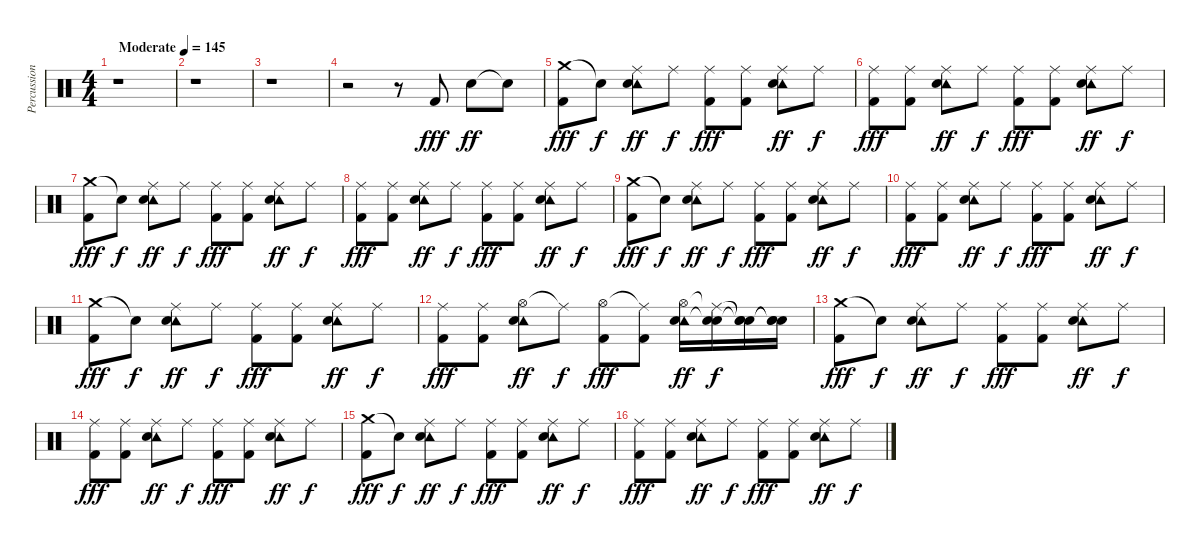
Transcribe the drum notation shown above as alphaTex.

\track ("Percussion" "Percussion") {instrument percussion}
\staff {score}
\articulation defaults
\ts (4 4)
\tempo (145 "Moderate")
\clef neutral
\ks c
r.1{dy fff} |
r.1 |
r.1 |
r.2 r.8 "Kick (hit) 2".8 "Electric Snare (hit)".8{dy ff} "Snare (hit)"{t}.8 |
("Crash medium (hit)" "Kick (hit) 2").8{dy fff} "Snare (hit)"{t}.8{dy f} ("Ride (middle)" "Tambourine (hit)" "Electric Snare (hit)").8{dy ff} "Ride (middle)".8{dy f} ("Ride (middle)" "Kick (hit) 2").8{dy fff} ("Ride (middle)" "Kick (hit) 2").8 ("Ride (middle)" "Tambourine (hit)" "Electric Snare (hit)").8{dy ff} "Ride (middle)".8{dy f} |
("Ride (middle)" "Kick (hit) 2").8{dy fff} ("Ride (middle)" "Kick (hit) 2").8 ("Ride (middle)" "Tambourine (hit)" "Electric Snare (hit)").8{dy ff} "Ride (middle)".8{dy f} ("Ride (middle)" "Kick (hit) 2").8{dy fff} ("Ride (middle)" "Kick (hit) 2").8 ("Ride (middle)" "Tambourine (hit)" "Electric Snare (hit)").8{dy ff} "Ride (middle)".8{dy f} |
("Crash medium (hit)" "Kick (hit) 2").8{dy fff} "Snare (hit)"{t}.8{dy f} ("Ride (middle)" "Tambourine (hit)" "Electric Snare (hit)").8{dy ff} "Ride (middle)".8{dy f} ("Ride (middle)" "Kick (hit) 2").8{dy fff} ("Ride (middle)" "Kick (hit) 2").8 ("Ride (middle)" "Tambourine (hit)" "Electric Snare (hit)").8{dy ff} "Ride (middle)".8{dy f} |
("Ride (middle)" "Kick (hit) 2").8{dy fff} ("Ride (middle)" "Kick (hit) 2").8 ("Ride (middle)" "Tambourine (hit)" "Electric Snare (hit)").8{dy ff} "Ride (middle)".8{dy f} ("Ride (middle)" "Kick (hit) 2").8{dy fff} ("Ride (middle)" "Kick (hit) 2").8 ("Ride (middle)" "Tambourine (hit)" "Electric Snare (hit)").8{dy ff} "Ride (middle)".8{dy f} |
("Crash medium (hit)" "Kick (hit) 2").8{dy fff} "Snare (hit)"{t}.8{dy f} ("Ride (middle)" "Tambourine (hit)" "Electric Snare (hit)").8{dy ff} "Ride (middle)".8{dy f} ("Ride (middle)" "Kick (hit) 2").8{dy fff} ("Ride (middle)" "Kick (hit) 2").8 ("Ride (middle)" "Tambourine (hit)" "Electric Snare (hit)").8{dy ff} "Ride (middle)".8{dy f} |
("Ride (middle)" "Kick (hit) 2").8{dy fff} ("Ride (middle)" "Kick (hit) 2").8 ("Ride (middle)" "Tambourine (hit)" "Electric Snare (hit)").8{dy ff} "Ride (middle)".8{dy f} ("Ride (middle)" "Kick (hit) 2").8{dy fff} ("Ride (middle)" "Kick (hit) 2").8 ("Ride (middle)" "Tambourine (hit)" "Electric Snare (hit)").8{dy ff} "Ride (middle)".8{dy f} |
("Crash medium (hit)" "Kick (hit) 2").8{dy fff} "Snare (hit)"{t}.8{dy f} ("Ride (middle)" "Tambourine (hit)" "Electric Snare (hit)").8{dy ff} "Ride (middle)".8{dy f} ("Ride (middle)" "Kick (hit) 2").8{dy fff} ("Ride (middle)" "Kick (hit) 2").8 ("Ride (middle)" "Tambourine (hit)" "Electric Snare (hit)").8{dy ff} "Ride (middle)".8{dy f} |
("Ride (middle)" "Kick (hit) 2").8{dy fff} ("Ride (middle)" "Kick (hit) 2").8 ("Hi-Hat (open)" "Tambourine (hit)" "Electric Snare (hit)").8{dy ff} "Ride (middle)"{t}.8{dy f} ("Hi-Hat (open)" "Kick (hit) 2").8{dy fff} ("Ride (middle)"{t} "Kick (hit) 2").8 ("Hi-Hat (open)" "Tambourine (hit)" "Electric Snare (hit)").16{dy ff} ("Ride (middle)"{t} "Snare (hit)"{t} "Electric Snare (hit)").16{dy f} ("Snare (hit)"{t} "Snare (hit)"{t} "Electric Snare (hit)").16 ("Snare (hit)"{t} "Snare (hit)"{t} "Electric Snare (hit)").16 |
("Crash medium (hit)" "Kick (hit) 2").8{dy fff} "Snare (hit)"{t}.8{dy f} ("Ride (middle)" "Tambourine (hit)" "Electric Snare (hit)").8{dy ff} "Ride (middle)".8{dy f} ("Ride (middle)" "Kick (hit) 2").8{dy fff} ("Ride (middle)" "Kick (hit) 2").8 ("Ride (middle)" "Tambourine (hit)" "Electric Snare (hit)").8{dy ff} "Ride (middle)".8{dy f} |
("Ride (middle)" "Kick (hit) 2").8{dy fff} ("Ride (middle)" "Kick (hit) 2").8 ("Ride (middle)" "Tambourine (hit)" "Electric Snare (hit)").8{dy ff} "Ride (middle)".8{dy f} ("Ride (middle)" "Kick (hit) 2").8{dy fff} ("Ride (middle)" "Kick (hit) 2").8 ("Ride (middle)" "Tambourine (hit)" "Electric Snare (hit)").8{dy ff} "Ride (middle)".8{dy f} |
("Crash medium (hit)" "Kick (hit) 2").8{dy fff} "Snare (hit)"{t}.8{dy f} ("Ride (middle)" "Tambourine (hit)" "Electric Snare (hit)").8{dy ff} "Ride (middle)".8{dy f} ("Ride (middle)" "Kick (hit) 2").8{dy fff} ("Ride (middle)" "Kick (hit) 2").8 ("Ride (middle)" "Tambourine (hit)" "Electric Snare (hit)").8{dy ff} "Ride (middle)".8{dy f} |
("Ride (middle)" "Kick (hit) 2").8{dy fff} ("Ride (middle)" "Kick (hit) 2").8 ("Ride (middle)" "Tambourine (hit)" "Electric Snare (hit)").8{dy ff} "Ride (middle)".8{dy f} ("Ride (middle)" "Kick (hit) 2").8{dy fff} ("Ride (middle)" "Kick (hit) 2").8 ("Ride (middle)" "Tambourine (hit)" "Electric Snare (hit)").8{dy ff} "Ride (middle)".8{dy f}
